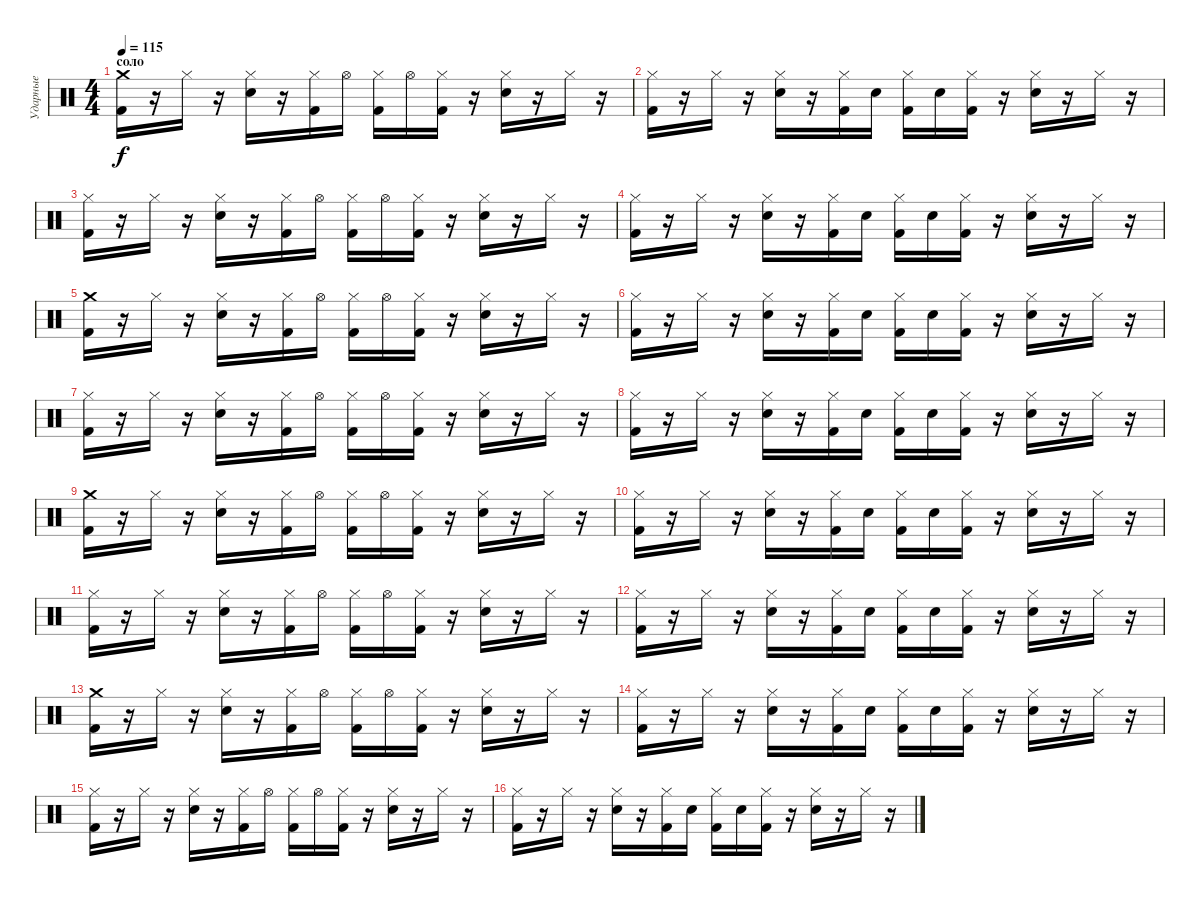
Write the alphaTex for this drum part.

\track ("Ударные" "Ударные") {instrument percussion}
\staff {score}
\articulation defaults
\ts (4 4)
\section ("" "соло")
\tempo 115
\clef neutral
\ks c
("Crash medium (hit)" "Kick (hit) 2").16{dy f} r.16 "Hi-Hat (closed)".16 r.16 ("Hi-Hat (closed)" "Snare (hit) 2").16 r.16 ("Hi-Hat (closed)" "Kick (hit) 2").16 "Hi-Hat (open)".16 ("Hi-Hat (closed)" "Kick (hit) 2").16 "Hi-Hat (open)".16 ("Hi-Hat (closed)" "Kick (hit) 2").16 r.16 ("Hi-Hat (closed)" "Snare (hit) 2").16 r.16 "Hi-Hat (closed)".16 r.16 |
("Hi-Hat (closed)" "Kick (hit) 2").16 r.16 "Hi-Hat (closed)".16 r.16 ("Hi-Hat (closed)" "Snare (hit) 2").16 r.16 ("Hi-Hat (closed)" "Kick (hit) 2").16 "Snare (hit) 2".16 ("Hi-Hat (closed)" "Kick (hit) 2").16 "Snare (hit) 2".16 ("Hi-Hat (closed)" "Kick (hit) 2").16 r.16 ("Hi-Hat (closed)" "Snare (hit) 2").16 r.16 "Hi-Hat (closed)".16 r.16 |
("Hi-Hat (closed)" "Kick (hit) 2").16 r.16 "Hi-Hat (closed)".16 r.16 ("Hi-Hat (closed)" "Snare (hit) 2").16 r.16 ("Hi-Hat (closed)" "Kick (hit) 2").16 "Hi-Hat (open)".16 ("Hi-Hat (closed)" "Kick (hit) 2").16 "Hi-Hat (open)".16 ("Hi-Hat (closed)" "Kick (hit) 2").16 r.16 ("Hi-Hat (closed)" "Snare (hit) 2").16 r.16 "Hi-Hat (closed)".16 r.16 |
("Hi-Hat (closed)" "Kick (hit) 2").16 r.16 "Hi-Hat (closed)".16 r.16 ("Hi-Hat (closed)" "Snare (hit) 2").16 r.16 ("Hi-Hat (closed)" "Kick (hit) 2").16 "Snare (hit) 2".16 ("Hi-Hat (closed)" "Kick (hit) 2").16 "Snare (hit) 2".16 ("Hi-Hat (closed)" "Kick (hit) 2").16 r.16 ("Hi-Hat (closed)" "Snare (hit) 2").16 r.16 "Hi-Hat (closed)".16 r.16 |
("Crash medium (hit)" "Kick (hit) 2").16 r.16 "Hi-Hat (closed)".16 r.16 ("Hi-Hat (closed)" "Snare (hit) 2").16 r.16 ("Hi-Hat (closed)" "Kick (hit) 2").16 "Hi-Hat (open)".16 ("Hi-Hat (closed)" "Kick (hit) 2").16 "Hi-Hat (open)".16 ("Hi-Hat (closed)" "Kick (hit) 2").16 r.16 ("Hi-Hat (closed)" "Snare (hit) 2").16 r.16 "Hi-Hat (closed)".16 r.16 |
("Hi-Hat (closed)" "Kick (hit) 2").16 r.16 "Hi-Hat (closed)".16 r.16 ("Hi-Hat (closed)" "Snare (hit) 2").16 r.16 ("Hi-Hat (closed)" "Kick (hit) 2").16 "Snare (hit) 2".16 ("Hi-Hat (closed)" "Kick (hit) 2").16 "Snare (hit) 2".16 ("Hi-Hat (closed)" "Kick (hit) 2").16 r.16 ("Hi-Hat (closed)" "Snare (hit) 2").16 r.16 "Hi-Hat (closed)".16 r.16 |
("Hi-Hat (closed)" "Kick (hit) 2").16 r.16 "Hi-Hat (closed)".16 r.16 ("Hi-Hat (closed)" "Snare (hit) 2").16 r.16 ("Hi-Hat (closed)" "Kick (hit) 2").16 "Hi-Hat (open)".16 ("Hi-Hat (closed)" "Kick (hit) 2").16 "Hi-Hat (open)".16 ("Hi-Hat (closed)" "Kick (hit) 2").16 r.16 ("Hi-Hat (closed)" "Snare (hit) 2").16 r.16 "Hi-Hat (closed)".16 r.16 |
("Hi-Hat (closed)" "Kick (hit) 2").16 r.16 "Hi-Hat (closed)".16 r.16 ("Hi-Hat (closed)" "Snare (hit) 2").16 r.16 ("Hi-Hat (closed)" "Kick (hit) 2").16 "Snare (hit) 2".16 ("Hi-Hat (closed)" "Kick (hit) 2").16 "Snare (hit) 2".16 ("Hi-Hat (closed)" "Kick (hit) 2").16 r.16 ("Hi-Hat (closed)" "Snare (hit) 2").16 r.16 "Hi-Hat (closed)".16 r.16 |
("Crash medium (hit)" "Kick (hit) 2").16 r.16 "Hi-Hat (closed)".16 r.16 ("Hi-Hat (closed)" "Snare (hit) 2").16 r.16 ("Hi-Hat (closed)" "Kick (hit) 2").16 "Hi-Hat (open)".16 ("Hi-Hat (closed)" "Kick (hit) 2").16 "Hi-Hat (open)".16 ("Hi-Hat (closed)" "Kick (hit) 2").16 r.16 ("Hi-Hat (closed)" "Snare (hit) 2").16 r.16 "Hi-Hat (closed)".16 r.16 |
("Hi-Hat (closed)" "Kick (hit) 2").16 r.16 "Hi-Hat (closed)".16 r.16 ("Hi-Hat (closed)" "Snare (hit) 2").16 r.16 ("Hi-Hat (closed)" "Kick (hit) 2").16 "Snare (hit) 2".16 ("Hi-Hat (closed)" "Kick (hit) 2").16 "Snare (hit) 2".16 ("Hi-Hat (closed)" "Kick (hit) 2").16 r.16 ("Hi-Hat (closed)" "Snare (hit) 2").16 r.16 "Hi-Hat (closed)".16 r.16 |
("Hi-Hat (closed)" "Kick (hit) 2").16 r.16 "Hi-Hat (closed)".16 r.16 ("Hi-Hat (closed)" "Snare (hit) 2").16 r.16 ("Hi-Hat (closed)" "Kick (hit) 2").16 "Hi-Hat (open)".16 ("Hi-Hat (closed)" "Kick (hit) 2").16 "Hi-Hat (open)".16 ("Hi-Hat (closed)" "Kick (hit) 2").16 r.16 ("Hi-Hat (closed)" "Snare (hit) 2").16 r.16 "Hi-Hat (closed)".16 r.16 |
("Hi-Hat (closed)" "Kick (hit) 2").16 r.16 "Hi-Hat (closed)".16 r.16 ("Hi-Hat (closed)" "Snare (hit) 2").16 r.16 ("Hi-Hat (closed)" "Kick (hit) 2").16 "Snare (hit) 2".16 ("Hi-Hat (closed)" "Kick (hit) 2").16 "Snare (hit) 2".16 ("Hi-Hat (closed)" "Kick (hit) 2").16 r.16 ("Hi-Hat (closed)" "Snare (hit) 2").16 r.16 "Hi-Hat (closed)".16 r.16 |
("Crash medium (hit)" "Kick (hit) 2").16 r.16 "Hi-Hat (closed)".16 r.16 ("Hi-Hat (closed)" "Snare (hit) 2").16 r.16 ("Hi-Hat (closed)" "Kick (hit) 2").16 "Hi-Hat (open)".16 ("Hi-Hat (closed)" "Kick (hit) 2").16 "Hi-Hat (open)".16 ("Hi-Hat (closed)" "Kick (hit) 2").16 r.16 ("Hi-Hat (closed)" "Snare (hit) 2").16 r.16 "Hi-Hat (closed)".16 r.16 |
("Hi-Hat (closed)" "Kick (hit) 2").16 r.16 "Hi-Hat (closed)".16 r.16 ("Hi-Hat (closed)" "Snare (hit) 2").16 r.16 ("Hi-Hat (closed)" "Kick (hit) 2").16 "Snare (hit) 2".16 ("Hi-Hat (closed)" "Kick (hit) 2").16 "Snare (hit) 2".16 ("Hi-Hat (closed)" "Kick (hit) 2").16 r.16 ("Hi-Hat (closed)" "Snare (hit) 2").16 r.16 "Hi-Hat (closed)".16 r.16 |
("Hi-Hat (closed)" "Kick (hit) 2").16 r.16 "Hi-Hat (closed)".16 r.16 ("Hi-Hat (closed)" "Snare (hit) 2").16 r.16 ("Hi-Hat (closed)" "Kick (hit) 2").16 "Hi-Hat (open)".16 ("Hi-Hat (closed)" "Kick (hit) 2").16 "Hi-Hat (open)".16 ("Hi-Hat (closed)" "Kick (hit) 2").16 r.16 ("Hi-Hat (closed)" "Snare (hit) 2").16 r.16 "Hi-Hat (closed)".16 r.16 |
("Hi-Hat (closed)" "Kick (hit) 2").16 r.16 "Hi-Hat (closed)".16 r.16 ("Hi-Hat (closed)" "Snare (hit) 2").16 r.16 ("Hi-Hat (closed)" "Kick (hit) 2").16 "Snare (hit) 2".16 ("Hi-Hat (closed)" "Kick (hit) 2").16 "Snare (hit) 2".16 ("Hi-Hat (closed)" "Kick (hit) 2").16 r.16 ("Hi-Hat (closed)" "Snare (hit) 2").16 r.16 "Hi-Hat (closed)".16 r.16
